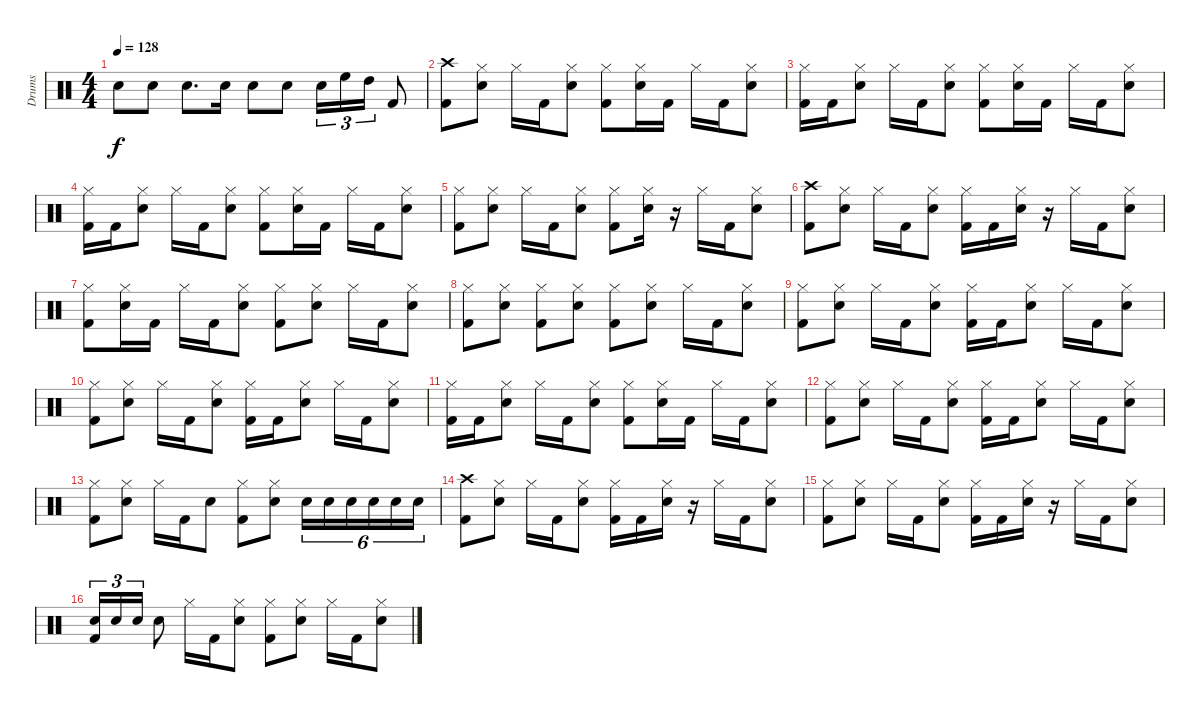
\track ("Drums" "Drums") {instrument percussion}
\staff {score}
\articulation defaults
\ts (4 4)
\tempo 128
\clef neutral
\ks c "Snare (hit) 2".8{dy f} "Snare (hit) 2".8 "Snare (hit) 2".8{d} "Snare (hit) 2".16 "Snare (hit) 2".8 "Snare (hit) 2".8 "Snare (hit) 2".16{tu (3 2)} "High Floor Tom (hit)".16{tu (3 2)} "High Tom (hit)".16{tu (3 2)} "Kick (hit) 2".8
|
("Kick (hit) 2" "Crash high (hit)").8 ("Snare (hit) 2" "Hi-Hat (closed)").8 "Hi-Hat (closed)".16 "Kick (hit) 2".16 ("Snare (hit) 2" "Hi-Hat (closed)").8 ("Kick (hit) 2" "Hi-Hat (closed)").8 ("Snare (hit) 2" "Hi-Hat (closed)").16 "Kick (hit) 2".16 "Hi-Hat (closed)".16 "Kick (hit) 2".16 ("Snare (hit) 2" "Hi-Hat (closed)").8 |
("Kick (hit) 2" "Hi-Hat (closed)").16 "Kick (hit) 2".16 ("Snare (hit) 2" "Hi-Hat (closed)").8 "Hi-Hat (closed)".16 "Kick (hit) 2".16 ("Snare (hit) 2" "Hi-Hat (closed)").8 ("Kick (hit) 2" "Hi-Hat (closed)").8 ("Snare (hit) 2" "Hi-Hat (closed)").16 "Kick (hit) 2".16 "Hi-Hat (closed)".16 "Kick (hit) 2".16 ("Snare (hit) 2" "Hi-Hat (closed)").8 |
("Kick (hit) 2" "Hi-Hat (closed)").16 "Kick (hit) 2".16 ("Snare (hit) 2" "Hi-Hat (closed)").8 "Hi-Hat (closed)".16 "Kick (hit) 2".16 ("Snare (hit) 2" "Hi-Hat (closed)").8 ("Kick (hit) 2" "Hi-Hat (closed)").8 ("Snare (hit) 2" "Hi-Hat (closed)").16 "Kick (hit) 2".16 "Hi-Hat (closed)".16 "Kick (hit) 2".16 ("Snare (hit) 2" "Hi-Hat (closed)").8 |
("Kick (hit) 2" "Hi-Hat (closed)").8 ("Snare (hit) 2" "Hi-Hat (closed)").8 "Hi-Hat (closed)".16 "Kick (hit) 2".16 ("Snare (hit) 2" "Hi-Hat (closed)").8 ("Kick (hit) 2" "Hi-Hat (closed)").8 ("Snare (hit) 2" "Hi-Hat (closed)").16 r.16 "Hi-Hat (closed)".16 "Kick (hit) 2".16 ("Snare (hit) 2" "Hi-Hat (closed)").8 |
("Kick (hit) 2" "Crash high (hit)").8 ("Snare (hit) 2" "Hi-Hat (closed)").8 "Hi-Hat (closed)".16 "Kick (hit) 2".16 ("Snare (hit) 2" "Hi-Hat (closed)").8 ("Kick (hit) 2" "Hi-Hat (closed)").16 "Kick (hit) 2".16 ("Snare (hit) 2" "Hi-Hat (closed)").16 r.16 "Hi-Hat (closed)".16 "Kick (hit) 2".16 ("Snare (hit) 2" "Hi-Hat (closed)").8 |
("Kick (hit) 2" "Hi-Hat (closed)").8 ("Snare (hit) 2" "Hi-Hat (closed)").16 "Kick (hit) 2".16 "Hi-Hat (closed)".16 "Kick (hit) 2".16 ("Snare (hit) 2" "Hi-Hat (closed)").8 ("Kick (hit) 2" "Hi-Hat (closed)").8 ("Snare (hit) 2" "Hi-Hat (closed)").8 "Hi-Hat (closed)".16 "Kick (hit) 2".16 ("Snare (hit) 2" "Hi-Hat (closed)").8 |
("Kick (hit) 2" "Hi-Hat (closed)").8 ("Snare (hit) 2" "Hi-Hat (closed)").8 ("Kick (hit) 2" "Hi-Hat (closed)").8 ("Snare (hit) 2" "Hi-Hat (closed)").8 ("Kick (hit) 2" "Hi-Hat (closed)").8 ("Snare (hit) 2" "Hi-Hat (closed)").8 "Hi-Hat (closed)".16 "Kick (hit) 2".16 ("Snare (hit) 2" "Hi-Hat (closed)").8 |
("Kick (hit) 2" "Hi-Hat (closed)").8 ("Snare (hit) 2" "Hi-Hat (closed)").8 "Hi-Hat (closed)".16 "Kick (hit) 2".16 ("Snare (hit) 2" "Hi-Hat (closed)").8 ("Kick (hit) 2" "Hi-Hat (closed)").16 "Kick (hit) 2".16 ("Snare (hit) 2" "Hi-Hat (closed)").8 "Hi-Hat (closed)".16 "Kick (hit) 2".16 ("Snare (hit) 2" "Hi-Hat (closed)").8 |
("Kick (hit) 2" "Hi-Hat (closed)").8 ("Snare (hit) 2" "Hi-Hat (closed)").8 "Hi-Hat (closed)".16 "Kick (hit) 2".16 ("Snare (hit) 2" "Hi-Hat (closed)").8 ("Kick (hit) 2" "Hi-Hat (closed)").16 "Kick (hit) 2".16 ("Snare (hit) 2" "Hi-Hat (closed)").8 "Hi-Hat (closed)".16 "Kick (hit) 2".16 ("Snare (hit) 2" "Hi-Hat (closed)").8 |
("Kick (hit) 2" "Hi-Hat (closed)").16 "Kick (hit) 2".16 ("Snare (hit) 2" "Hi-Hat (closed)").8 "Hi-Hat (closed)".16 "Kick (hit) 2".16 ("Snare (hit) 2" "Hi-Hat (closed)").8 ("Kick (hit) 2" "Hi-Hat (closed)").8 ("Snare (hit) 2" "Hi-Hat (closed)").16 "Kick (hit) 2".16 "Hi-Hat (closed)".16 "Kick (hit) 2".16 ("Snare (hit) 2" "Hi-Hat (closed)").8 |
("Kick (hit) 2" "Hi-Hat (closed)").8 ("Snare (hit) 2" "Hi-Hat (closed)").8 "Hi-Hat (closed)".16 "Kick (hit) 2".16 ("Snare (hit) 2" "Hi-Hat (closed)").8 ("Kick (hit) 2" "Hi-Hat (closed)").16 "Kick (hit) 2".16 ("Snare (hit) 2" "Hi-Hat (closed)").8 "Hi-Hat (closed)".16 "Kick (hit) 2".16 ("Snare (hit) 2" "Hi-Hat (closed)").8 |
("Kick (hit) 2" "Hi-Hat (closed)").8 ("Snare (hit) 2" "Hi-Hat (closed)").8 "Hi-Hat (closed)".16 "Kick (hit) 2".16 "Snare (hit) 2".8 ("Kick (hit) 2" "Hi-Hat (closed)").8 ("Snare (hit) 2" "Hi-Hat (closed)").8 "Snare (hit) 2".16{tu (6 4)} "Snare (hit) 2".16{tu (6 4)} "Snare (hit) 2".16{tu (6 4)} "Snare (hit) 2".16{tu (6 4)} "Snare (hit) 2".16{tu (6 4)} "Snare (hit) 2".16{tu (6 4)} |
("Kick (hit) 2" "Crash high (hit)").8 ("Snare (hit) 2" "Hi-Hat (closed)").8 "Hi-Hat (closed)".16 "Kick (hit) 2".16 ("Snare (hit) 2" "Hi-Hat (closed)").8 ("Kick (hit) 2" "Hi-Hat (closed)").16 "Kick (hit) 2".16 ("Snare (hit) 2" "Hi-Hat (closed)").16 r.16 "Hi-Hat (closed)".16 "Kick (hit) 2".16 ("Snare (hit) 2" "Hi-Hat (closed)").8 |
("Kick (hit) 2" "Hi-Hat (closed)").8 ("Snare (hit) 2" "Hi-Hat (closed)").8 "Hi-Hat (closed)".16 "Kick (hit) 2".16 ("Snare (hit) 2" "Hi-Hat (closed)").8 ("Kick (hit) 2" "Hi-Hat (closed)").16 "Kick (hit) 2".16 ("Snare (hit) 2" "Hi-Hat (closed)").16 r.16 "Hi-Hat (closed)".16 "Kick (hit) 2".16 ("Snare (hit) 2" "Hi-Hat (closed)").8 |
("Kick (hit) 2" "Snare (hit) 2").16{tu (3 2)} "Snare (hit) 2".16{tu (3 2)} "Snare (hit) 2".16{tu (3 2)} "Snare (hit) 2".8 "Hi-Hat (closed)".16 "Kick (hit) 2".16 ("Snare (hit) 2" "Hi-Hat (closed)").8 ("Kick (hit) 2" "Hi-Hat (closed)").8 ("Snare (hit) 2" "Hi-Hat (closed)").8 "Hi-Hat (closed)".16 "Kick (hit) 2".16 ("Snare (hit) 2" "Hi-Hat (closed)").8
